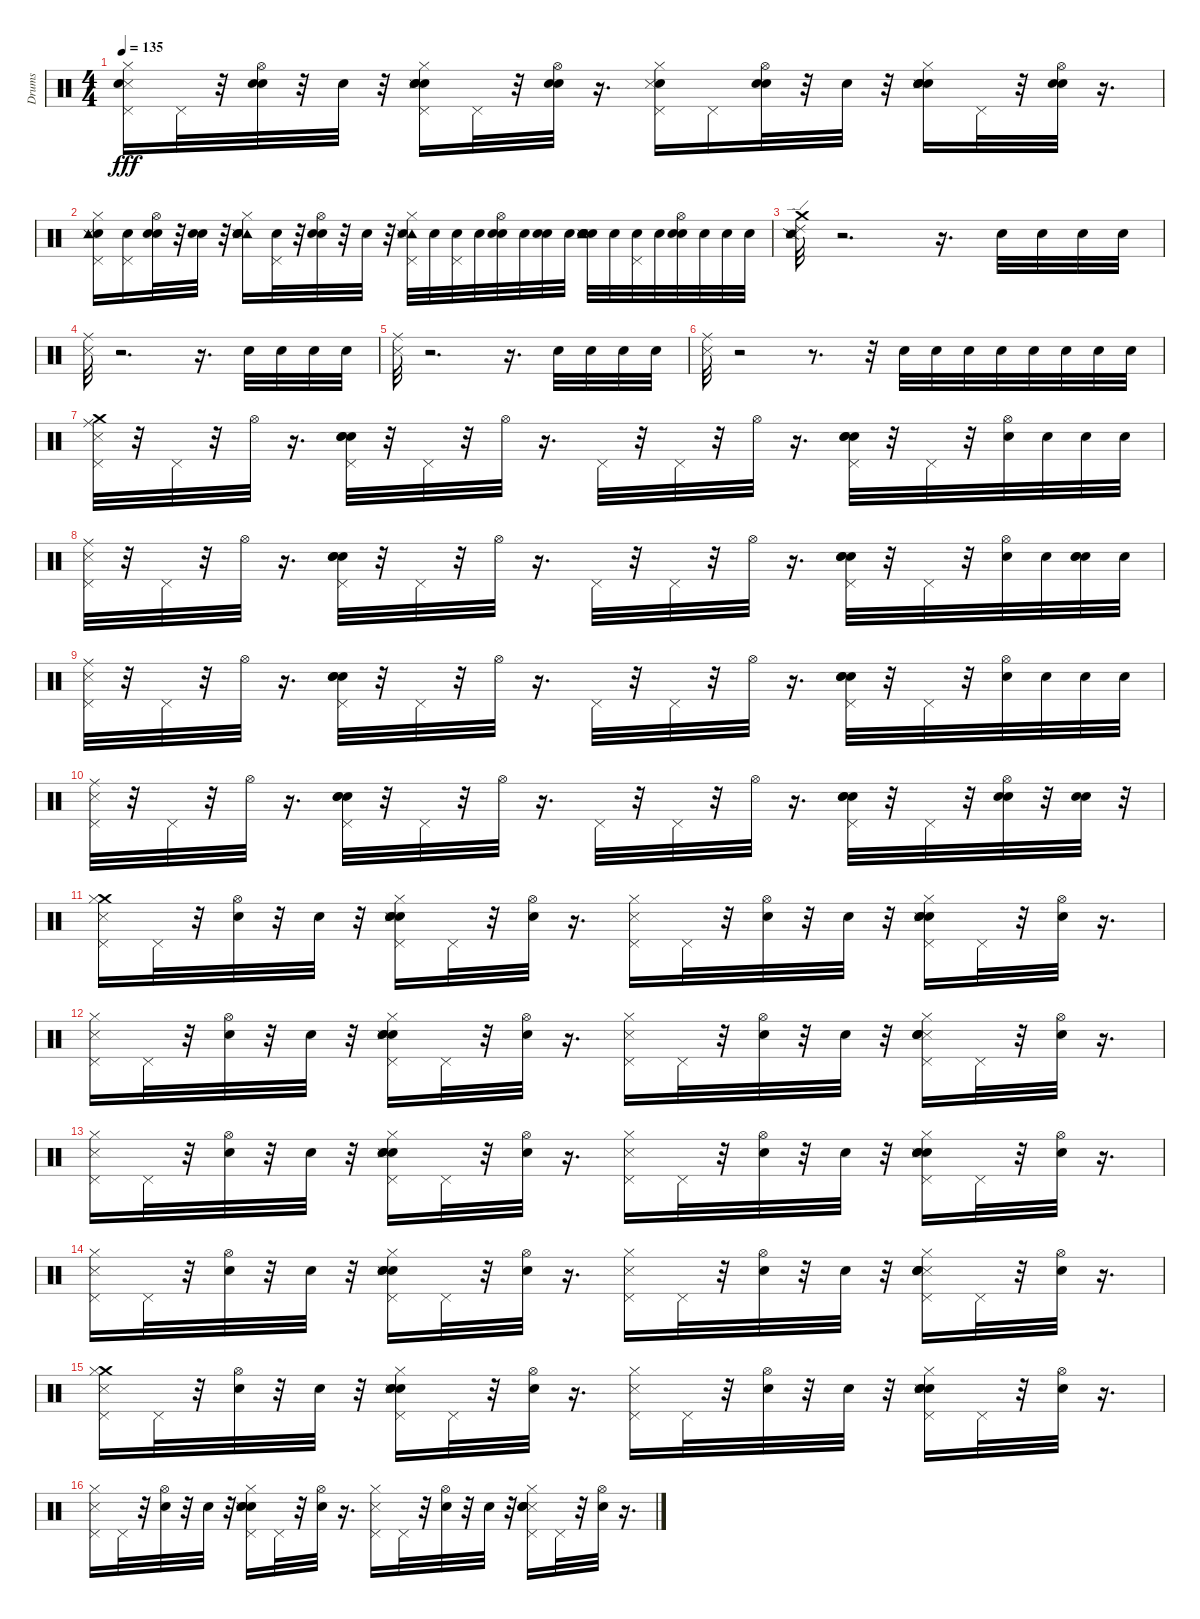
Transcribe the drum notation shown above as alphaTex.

\track ("Drums" "Drums") {instrument percussion}
\staff {score}
\articulation defaults
\ts (4 4)
\tempo 135
\clef neutral
\ks c
("Metronome (hit)" "Pedal Hi-Hat (hit)" "Hi-Hat (closed)" "Snare (hit) 2").16{dy fff} "Pedal Hi-Hat (hit)".32 r.32 ("Hi-Hat (open)" "Snare (hit)" "Snare (hit) 2").32 r.32 "Snare (hit)".32 r.32 ("Electric Snare (hit)" "Snare (hit) 2" "Metronome (hit)" "Hand Clap (hit)" "Hi-Hat (closed)" "Pedal Hi-Hat (hit)").16 "Pedal Hi-Hat (hit)".32 r.32 ("Snare (hit) 2" "Snare (hit)" "Hi-Hat (open)").32 r.16{d} ("Hi-Hat (closed)" "Pedal Hi-Hat (hit)" "Snare (hit) 2" "Metronome (hit)").16 "Pedal Hi-Hat (hit)".16 ("Hi-Hat (open)" "Snare (hit) 2" "Snare (hit)").32 r.32 "Snare (hit)".32 r.32 ("Snare (hit)" "Electric Snare (hit)" "Hand Clap (hit)" "Hi-Hat (closed)" "Snare (hit) 2" "Metronome (hit)").16 "Pedal Hi-Hat (hit)".32 r.32 ("Snare (hit)" "Hi-Hat (open)" "Snare (hit) 2").32 r.16{d} |
("Snare (hit) 2" "Hi-Hat (closed)" "Tambourine (hit)" "Pedal Hi-Hat (hit)" "Metronome (hit)").16 ("Pedal Hi-Hat (hit)" "Snare (hit) 2").16 ("Hi-Hat (open)" "Snare (hit)" "Snare (hit) 2").32 r.32 ("Snare (hit)" "Snare (hit) 2").32 r.32 ("Tambourine (hit)" "Snare (hit)" "Snare (hit) 2" "Electric Snare (hit)" "Metronome (hit)" "Hi-Hat (closed)").16 ("Snare (hit) 2" "Pedal Hi-Hat (hit)").32 r.32 ("Snare (hit)" "Snare (hit) 2" "Hi-Hat (open)").32 r.32 "Snare (hit) 2".32 r.32 ("Tambourine (hit)" "Metronome (hit)" "Snare (hit) 2" "Hi-Hat (closed)" "Pedal Hi-Hat (hit)").32 "Snare (hit) 2".32 ("Pedal Hi-Hat (hit)" "Snare (hit) 2").32 "Snare (hit) 2".32 ("Hi-Hat (open)" "Snare (hit)" "Snare (hit) 2").32 "Snare (hit) 2".32 ("Snare (hit)" "Snare (hit) 2").32 "Snare (hit) 2".32 ("Hand Clap (hit)" "Tambourine (hit)" "Metronome (hit)" "Snare (hit) 2" "Electric Snare (hit)" "Snare (hit)").32 "Snare (hit) 2".32 ("Snare (hit) 2" "Pedal Hi-Hat (hit)").32 "Snare (hit) 2".32 ("Snare (hit)" "Snare (hit) 2" "Hi-Hat (open)").32 "Snare (hit) 2".32 "Snare (hit) 2".32 "Snare (hit) 2".32 |
("Ride (edge) 2" "Crash medium (hit)" "Snare (side stick) 2" "Metronome (hit)").32 r.2{d} r.16{d} "Snare (hit) 2".32 "Snare (hit) 2".32 "Snare (hit) 2".32 "Snare (hit) 2".32 |
("Ride (middle)" "Metronome (hit)").32 r.2{d} r.16{d} "Snare (hit) 2".32 "Snare (hit) 2".32 "Snare (hit) 2".32 "Snare (hit) 2".32 |
("Ride (middle)" "Metronome (hit)").32 r.2{d} r.16{d} "Snare (hit) 2".32 "Snare (hit) 2".32 "Snare (hit) 2".32 "Snare (hit) 2".32 |
("Ride (middle)" "Metronome (hit)").32 r.2 r.8{d} r.32 "Snare (hit) 2".32 "Snare (hit) 2".32 "Snare (hit) 2".32 "Snare (hit) 2".32 "Snare (hit) 2".32 "Snare (hit) 2".32 "Snare (hit) 2".32 "Snare (hit) 2".32 |
("Metronome (hit)" "Crash medium (hit)" "Ride (middle)" "Pedal Hi-Hat (hit)").32 r.32 "Pedal Hi-Hat (hit)".32 r.32 "Hi-Hat (open)".32 r.16{d} ("Snare (hit)" "Pedal Hi-Hat (hit)" "Electric Snare (hit)" "Hand Clap (hit)").32 r.32 "Pedal Hi-Hat (hit)".32 r.32 "Hi-Hat (open)".32 r.16{d} "Pedal Hi-Hat (hit)".32 r.32 "Pedal Hi-Hat (hit)".32 r.32 "Hi-Hat (open)".32 r.16{d} ("Hand Clap (hit)" "Snare (hit)" "Electric Snare (hit)" "Pedal Hi-Hat (hit)").32 r.32 "Pedal Hi-Hat (hit)".32 r.32 ("Hi-Hat (open)" "Snare (hit) 2").32 "Snare (hit) 2".32 "Snare (hit) 2".32 "Snare (hit) 2".32 |
("Ride (middle)" "Pedal Hi-Hat (hit)" "Metronome (hit)").32 r.32 "Pedal Hi-Hat (hit)".32 r.32 "Hi-Hat (open)".32 r.16{d} ("Electric Snare (hit)" "Pedal Hi-Hat (hit)" "Hand Clap (hit)" "Snare (hit)").32 r.32 "Pedal Hi-Hat (hit)".32 r.32 "Hi-Hat (open)".32 r.16{d} "Pedal Hi-Hat (hit)".32 r.32 "Pedal Hi-Hat (hit)".32 r.32 "Hi-Hat (open)".32 r.16{d} ("Snare (hit)" "Hand Clap (hit)" "Electric Snare (hit)" "Pedal Hi-Hat (hit)").32 r.32 "Pedal Hi-Hat (hit)".32 r.32 ("Hi-Hat (open)" "Snare (hit) 2").32 "Snare (hit) 2".32 ("Hand Clap (hit)" "Electric Snare (hit)" "Snare (hit) 2").32 "Snare (hit) 2".32 |
("Ride (middle)" "Metronome (hit)" "Pedal Hi-Hat (hit)").32 r.32 "Pedal Hi-Hat (hit)".32 r.32 "Hi-Hat (open)".32 r.16{d} ("Snare (hit)" "Pedal Hi-Hat (hit)" "Hand Clap (hit)" "Electric Snare (hit)").32 r.32 "Pedal Hi-Hat (hit)".32 r.32 "Hi-Hat (open)".32 r.16{d} "Pedal Hi-Hat (hit)".32 r.32 "Pedal Hi-Hat (hit)".32 r.32 "Hi-Hat (open)".32 r.16{d} ("Pedal Hi-Hat (hit)" "Electric Snare (hit)" "Hand Clap (hit)" "Snare (hit)").32 r.32 "Pedal Hi-Hat (hit)".32 r.32 ("Hi-Hat (open)" "Snare (hit) 2").32 "Snare (hit) 2".32 "Snare (hit) 2".32 "Snare (hit) 2".32 |
("Metronome (hit)" "Pedal Hi-Hat (hit)" "Ride (middle)").32 r.32 "Pedal Hi-Hat (hit)".32 r.32 "Hi-Hat (open)".32 r.16{d} ("Electric Snare (hit)" "Snare (hit)" "Pedal Hi-Hat (hit)" "Hand Clap (hit)").32 r.32 "Pedal Hi-Hat (hit)".32 r.32 "Hi-Hat (open)".32 r.16{d} "Pedal Hi-Hat (hit)".32 r.32 "Pedal Hi-Hat (hit)".32 r.32 "Hi-Hat (open)".32 r.16{d} ("Electric Snare (hit)" "Snare (hit)" "Pedal Hi-Hat (hit)" "Hand Clap (hit)").32 r.32 "Pedal Hi-Hat (hit)".32 r.32 ("Hand Clap (hit)" "Hi-Hat (open)" "Electric Snare (hit)").32 r.32 ("Hand Clap (hit)" "Electric Snare (hit)").32 r.32 |
("Crash medium (hit)" "Pedal Hi-Hat (hit)" "Hi-Hat (closed)" "Metronome (hit)").16 "Pedal Hi-Hat (hit)".32 r.32 ("Hi-Hat (open)" "Snare (hit)").32 r.32 "Snare (hit)".32 r.32 ("Electric Snare (hit)" "Hand Clap (hit)" "Hi-Hat (closed)" "Snare (hit)" "Metronome (hit)" "Pedal Hi-Hat (hit)").16 "Pedal Hi-Hat (hit)".32 r.32 ("Snare (hit)" "Hi-Hat (open)").32 r.16{d} ("Pedal Hi-Hat (hit)" "Hi-Hat (closed)" "Metronome (hit)").16 "Pedal Hi-Hat (hit)".32 r.32 ("Snare (hit)" "Hi-Hat (open)").32 r.32 "Snare (hit)".32 r.32 ("Hi-Hat (closed)" "Electric Snare (hit)" "Snare (hit)" "Pedal Hi-Hat (hit)" "Metronome (hit)" "Hand Clap (hit)").16 "Pedal Hi-Hat (hit)".32 r.32 ("Snare (hit)" "Hi-Hat (open)").32 r.16{d} |
("Pedal Hi-Hat (hit)" "Hi-Hat (closed)" "Metronome (hit)").16 "Pedal Hi-Hat (hit)".32 r.32 ("Hi-Hat (open)" "Snare (hit)").32 r.32 "Snare (hit)".32 r.32 ("Hand Clap (hit)" "Snare (hit)" "Hi-Hat (closed)" "Pedal Hi-Hat (hit)" "Metronome (hit)" "Electric Snare (hit)").16 "Pedal Hi-Hat (hit)".32 r.32 ("Hi-Hat (open)" "Snare (hit)").32 r.16{d} ("Metronome (hit)" "Pedal Hi-Hat (hit)" "Hi-Hat (closed)").16 "Pedal Hi-Hat (hit)".32 r.32 ("Hi-Hat (open)" "Snare (hit)").32 r.32 "Snare (hit)".32 r.32 ("Metronome (hit)" "Hi-Hat (closed)" "Hand Clap (hit)" "Pedal Hi-Hat (hit)" "Snare (hit)" "Electric Snare (hit)").16 "Pedal Hi-Hat (hit)".32 r.32 ("Hi-Hat (open)" "Snare (hit)").32 r.16{d} |
("Pedal Hi-Hat (hit)" "Hi-Hat (closed)" "Metronome (hit)").16 "Pedal Hi-Hat (hit)".32 r.32 ("Snare (hit)" "Hi-Hat (open)").32 r.32 "Snare (hit)".32 r.32 ("Electric Snare (hit)" "Snare (hit)" "Metronome (hit)" "Hand Clap (hit)" "Pedal Hi-Hat (hit)" "Hi-Hat (closed)").16 "Pedal Hi-Hat (hit)".32 r.32 ("Snare (hit)" "Hi-Hat (open)").32 r.16{d} ("Pedal Hi-Hat (hit)" "Hi-Hat (closed)" "Metronome (hit)").16 "Pedal Hi-Hat (hit)".32 r.32 ("Snare (hit)" "Hi-Hat (open)").32 r.32 "Snare (hit)".32 r.32 ("Hi-Hat (closed)" "Snare (hit)" "Electric Snare (hit)" "Pedal Hi-Hat (hit)" "Metronome (hit)" "Hand Clap (hit)").16 "Pedal Hi-Hat (hit)".32 r.32 ("Hi-Hat (open)" "Snare (hit)").32 r.16{d} |
("Metronome (hit)" "Pedal Hi-Hat (hit)" "Hi-Hat (closed)").16 "Pedal Hi-Hat (hit)".32 r.32 ("Hi-Hat (open)" "Snare (hit)").32 r.32 "Snare (hit)".32 r.32 ("Electric Snare (hit)" "Hand Clap (hit)" "Hi-Hat (closed)" "Snare (hit)" "Metronome (hit)" "Pedal Hi-Hat (hit)").16 "Pedal Hi-Hat (hit)".32 r.32 ("Hi-Hat (open)" "Snare (hit)").32 r.16{d} ("Metronome (hit)" "Pedal Hi-Hat (hit)" "Hi-Hat (closed)").16 "Pedal Hi-Hat (hit)".32 r.32 ("Hi-Hat (open)" "Snare (hit)").32 r.32 "Snare (hit)".32 r.32 ("Metronome (hit)" "Hi-Hat (closed)" "Hand Clap (hit)" "Pedal Hi-Hat (hit)" "Snare (hit)" "Electric Snare (hit)").16 "Pedal Hi-Hat (hit)".32 r.32 ("Hi-Hat (open)" "Snare (hit)").32 r.16{d} |
("Crash medium (hit)" "Pedal Hi-Hat (hit)" "Hi-Hat (closed)" "Metronome (hit)").16 "Pedal Hi-Hat (hit)".32 r.32 ("Hi-Hat (open)" "Snare (hit)").32 r.32 "Snare (hit)".32 r.32 ("Snare (hit)" "Hand Clap (hit)" "Hi-Hat (closed)" "Electric Snare (hit)" "Metronome (hit)" "Pedal Hi-Hat (hit)").16 "Pedal Hi-Hat (hit)".32 r.32 ("Snare (hit)" "Hi-Hat (open)").32 r.16{d} ("Pedal Hi-Hat (hit)" "Metronome (hit)" "Hi-Hat (closed)").16 "Pedal Hi-Hat (hit)".32 r.32 ("Snare (hit)" "Hi-Hat (open)").32 r.32 "Snare (hit)".32 r.32 ("Pedal Hi-Hat (hit)" "Hi-Hat (closed)" "Electric Snare (hit)" "Snare (hit)" "Hand Clap (hit)" "Metronome (hit)").16 "Pedal Hi-Hat (hit)".32 r.32 ("Hi-Hat (open)" "Snare (hit)").32 r.16{d} |
("Metronome (hit)" "Pedal Hi-Hat (hit)" "Hi-Hat (closed)").16 "Pedal Hi-Hat (hit)".32 r.32 ("Hi-Hat (open)" "Snare (hit)").32 r.32 "Snare (hit)".32 r.32 ("Hand Clap (hit)" "Hi-Hat (closed)" "Metronome (hit)" "Pedal Hi-Hat (hit)" "Snare (hit)" "Electric Snare (hit)").16 "Pedal Hi-Hat (hit)".32 r.32 ("Snare (hit)" "Hi-Hat (open)").32 r.16{d} ("Hi-Hat (closed)" "Pedal Hi-Hat (hit)" "Metronome (hit)").16 "Pedal Hi-Hat (hit)".32 r.32 ("Snare (hit)" "Hi-Hat (open)").32 r.32 "Snare (hit)".32 r.32 ("Metronome (hit)" "Pedal Hi-Hat (hit)" "Hand Clap (hit)" "Hi-Hat (closed)" "Snare (hit)" "Electric Snare (hit)").16 "Pedal Hi-Hat (hit)".32 r.32 ("Snare (hit)" "Hi-Hat (open)").32 r.16{d}
